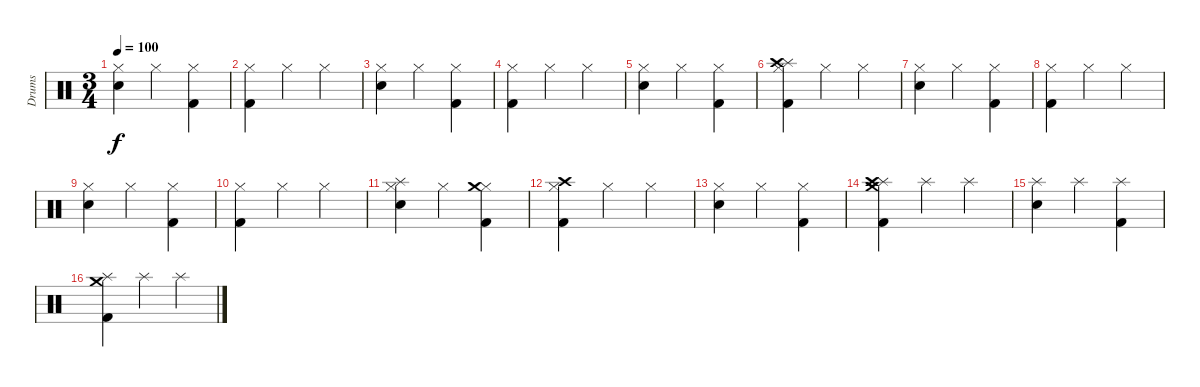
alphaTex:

\track ("Drums" "Drums") {instrument percussion}
\staff {score}
\articulation defaults
\ts (3 4)
\tempo 100
\clef neutral
\ks c
("Hi-Hat (closed)" "Electric Snare (hit)").4{dy f} "Hi-Hat (closed)".4 ("Hi-Hat (closed)" "Kick (hit) 2").4 |
("Hi-Hat (closed)" "Kick (hit) 2").4 "Hi-Hat (closed)".4 "Hi-Hat (closed)".4 |
("Hi-Hat (closed)" "Electric Snare (hit)").4 "Hi-Hat (closed)".4 ("Hi-Hat (closed)" "Kick (hit) 2").4 |
("Hi-Hat (closed)" "Kick (hit) 2").4 "Hi-Hat (closed)".4 "Hi-Hat (closed)".4 |
("Hi-Hat (closed)" "Electric Snare (hit)").4 "Hi-Hat (closed)".4 ("Hi-Hat (closed)" "Kick (hit) 2").4 |
("Hi-Hat (closed)" "Splash (hit)" "Crash high (hit)" "Kick (hit) 2").4 "Hi-Hat (closed)".4 "Hi-Hat (closed)".4 |
("Hi-Hat (closed)" "Electric Snare (hit)").4 "Hi-Hat (closed)".4 ("Hi-Hat (closed)" "Kick (hit) 2").4 |
("Hi-Hat (closed)" "Kick (hit) 2").4 "Hi-Hat (closed)".4 "Hi-Hat (closed)".4 |
("Hi-Hat (closed)" "Electric Snare (hit)").4 "Hi-Hat (closed)".4 ("Hi-Hat (closed)" "Kick (hit) 2").4 |
("Hi-Hat (closed)" "Kick (hit) 2").4 "Hi-Hat (closed)".4 "Hi-Hat (closed)".4 |
("Hi-Hat (closed)" "Splash (hit)" "Electric Snare (hit)").4 "Hi-Hat (closed)".4 ("Hi-Hat (closed)" "Crash medium (hit)" "Kick (hit) 2").4 |
("Hi-Hat (closed)" "Crash high (hit)" "Kick (hit) 2").4 "Hi-Hat (closed)".4 "Hi-Hat (closed)".4 |
("Hi-Hat (closed)" "Electric Snare (hit)").4 "Hi-Hat (closed)".4 ("Hi-Hat (closed)" "Kick (hit) 2").4 |
("Splash (hit)" "Crash high (hit)" "Crash medium (hit)" "Kick (hit) 2").4 "Splash (hit)".4 "Splash (hit)".4 |
("Splash (hit)" "Electric Snare (hit)").4 "Splash (hit)".4 ("Splash (hit)" "Kick (hit) 2").4 |
("Splash (hit)" "Crash medium (hit)" "Kick (hit) 2").4 "Splash (hit)".4 "Splash (hit)".4
